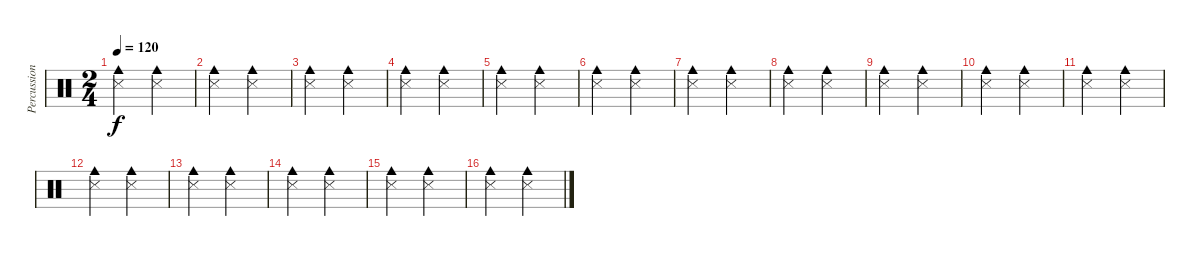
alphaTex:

\track ("Percussion" "Percussion") {instrument percussion}
\staff {score}
\articulation defaults
\ts (2 4)
\tempo 120
\clef neutral
\ks aminor
("Snare (side stick) 3" "Cowbell medium (hit)").4{dy f} ("Snare (side stick) 3" "Cowbell medium (hit)").4 |
("Snare (side stick) 3" "Cowbell medium (hit)").4 ("Snare (side stick) 3" "Cowbell medium (hit)").4 |
("Snare (side stick) 3" "Cowbell medium (hit)").4 ("Snare (side stick) 3" "Cowbell medium (hit)").4 |
("Snare (side stick) 3" "Cowbell medium (hit)").4 ("Snare (side stick) 3" "Cowbell medium (hit)").4 |
("Snare (side stick) 3" "Cowbell medium (hit)").4 ("Snare (side stick) 3" "Cowbell medium (hit)").4 |
("Snare (side stick) 3" "Cowbell medium (hit)").4 ("Snare (side stick) 3" "Cowbell medium (hit)").4 |
("Snare (side stick) 3" "Cowbell medium (hit)").4 ("Snare (side stick) 3" "Cowbell medium (hit)").4 |
("Snare (side stick) 3" "Cowbell medium (hit)").4 ("Snare (side stick) 3" "Cowbell medium (hit)").4 |
("Snare (side stick) 3" "Cowbell medium (hit)").4 ("Snare (side stick) 3" "Cowbell medium (hit)").4 |
("Snare (side stick) 3" "Cowbell medium (hit)").4 ("Snare (side stick) 3" "Cowbell medium (hit)").4 |
("Snare (side stick) 3" "Cowbell medium (hit)").4 ("Snare (side stick) 3" "Cowbell medium (hit)").4 |
("Snare (side stick) 3" "Cowbell medium (hit)").4 ("Snare (side stick) 3" "Cowbell medium (hit)").4 |
("Snare (side stick) 3" "Cowbell medium (hit)").4 ("Snare (side stick) 3" "Cowbell medium (hit)").4 |
("Snare (side stick) 3" "Cowbell medium (hit)").4 ("Snare (side stick) 3" "Cowbell medium (hit)").4 |
("Snare (side stick) 3" "Cowbell medium (hit)").4 ("Snare (side stick) 3" "Cowbell medium (hit)").4 |
("Snare (side stick) 3" "Cowbell medium (hit)").4 ("Snare (side stick) 3" "Cowbell medium (hit)").4
